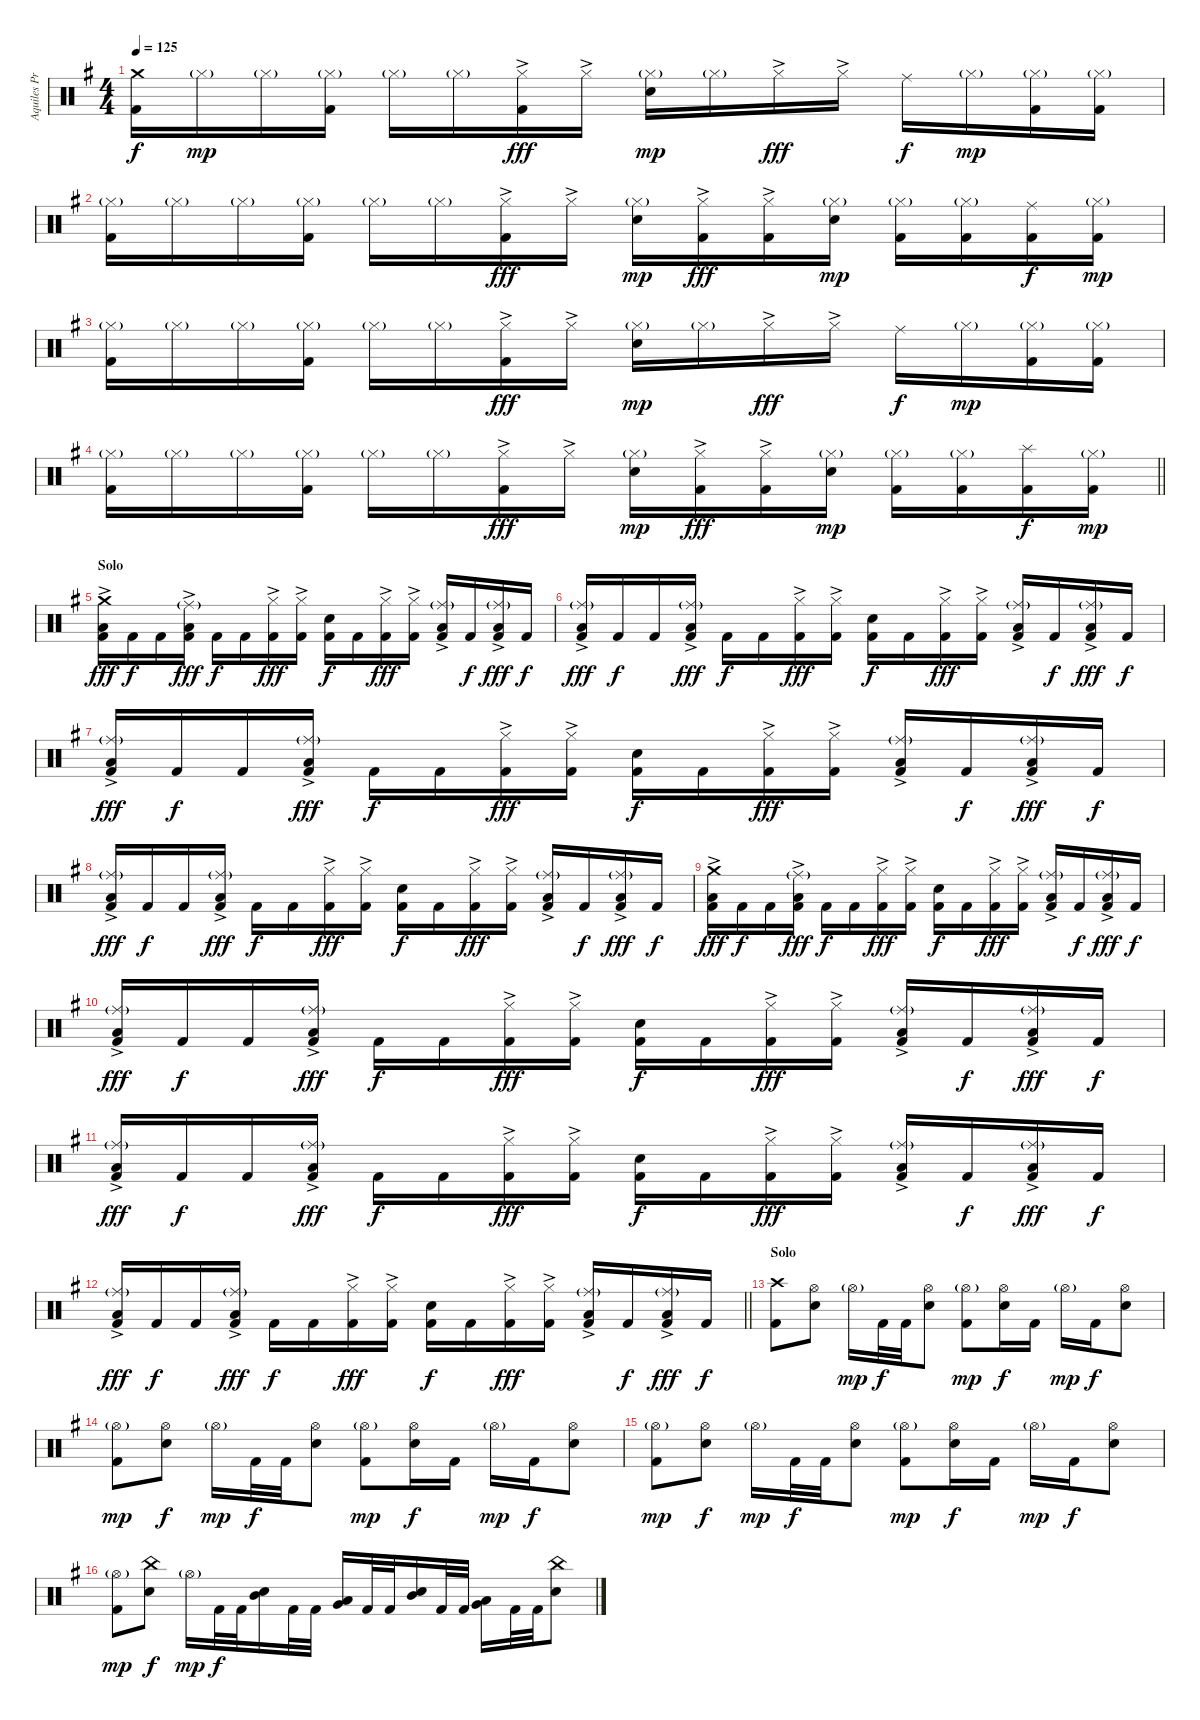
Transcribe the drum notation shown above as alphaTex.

\track ("Aquiles Priester" "Aquiles Pr") {instrument percussion}
\staff {score}
\articulation defaults
\ts (4 4)
\tempo 125
\clef neutral
\ks eminor
("Crash medium (hit)" "Kick (hit) 2").16{dy f} "Hi-Hat (closed)"{g}.16{dy mp} "Hi-Hat (closed)"{g}.16 ("Hi-Hat (closed)"{g} "Kick (hit) 2").16 "Hi-Hat (closed)"{g}.16 "Hi-Hat (closed)"{g}.16 ("Hi-Hat (closed)"{ac} "Kick (hit) 2").16{dy fff} "Hi-Hat (closed)"{ac}.16 ("Hi-Hat (closed)"{g} "Electric Snare (hit)").16{dy mp} "Hi-Hat (closed)"{g}.16 "Hi-Hat (closed)"{ac}.16{dy fff} "Hi-Hat (closed)"{ac}.16 "Ride (middle)".16{dy f} "Hi-Hat (closed)"{g}.16{dy mp} ("Hi-Hat (closed)"{g} "Kick (hit) 2").16 ("Hi-Hat (closed)"{g} "Kick (hit) 2").16 |
("Hi-Hat (closed)"{g} "Kick (hit) 2").16 "Hi-Hat (closed)"{g}.16 "Hi-Hat (closed)"{g}.16 ("Hi-Hat (closed)"{g} "Kick (hit) 2").16 "Hi-Hat (closed)"{g}.16 "Hi-Hat (closed)"{g}.16 ("Hi-Hat (closed)"{ac} "Kick (hit) 2").16{dy fff} "Hi-Hat (closed)"{ac}.16 ("Hi-Hat (closed)"{g} "Electric Snare (hit)").16{dy mp} ("Hi-Hat (closed)"{ac} "Kick (hit) 2").16{dy fff} ("Hi-Hat (closed)"{ac} "Kick (hit) 2").16 ("Hi-Hat (closed)"{g} "Electric Snare (hit)").16{dy mp} ("Hi-Hat (closed)"{g} "Kick (hit) 2").16 ("Hi-Hat (closed)"{g} "Kick (hit) 2").16 ("Ride (middle)" "Kick (hit) 2").16{dy f} ("Hi-Hat (closed)"{g} "Kick (hit) 2").16{dy mp} |
("Hi-Hat (closed)"{g} "Kick (hit) 2").16 "Hi-Hat (closed)"{g}.16 "Hi-Hat (closed)"{g}.16 ("Hi-Hat (closed)"{g} "Kick (hit) 2").16 "Hi-Hat (closed)"{g}.16 "Hi-Hat (closed)"{g}.16 ("Hi-Hat (closed)"{ac} "Kick (hit) 2").16{dy fff} "Hi-Hat (closed)"{ac}.16 ("Hi-Hat (closed)"{g} "Electric Snare (hit)").16{dy mp} "Hi-Hat (closed)"{g}.16 "Hi-Hat (closed)"{ac}.16{dy fff} "Hi-Hat (closed)"{ac}.16 "Ride (middle)".16{dy f} "Hi-Hat (closed)"{g}.16{dy mp} ("Hi-Hat (closed)"{g} "Kick (hit) 2").16 ("Hi-Hat (closed)"{g} "Kick (hit) 2").16 |
\barLineRight lightlight
("Hi-Hat (closed)"{g} "Kick (hit) 2").16 "Hi-Hat (closed)"{g}.16 "Hi-Hat (closed)"{g}.16 ("Hi-Hat (closed)"{g} "Kick (hit) 2").16 "Hi-Hat (closed)"{g}.16 "Hi-Hat (closed)"{g}.16 ("Hi-Hat (closed)"{ac} "Kick (hit) 2").16{dy fff} "Hi-Hat (closed)"{ac}.16 ("Hi-Hat (closed)"{g} "Electric Snare (hit)").16{dy mp} ("Hi-Hat (closed)"{ac} "Kick (hit) 2").16{dy fff} ("Hi-Hat (closed)"{ac} "Kick (hit) 2").16 ("Hi-Hat (closed)"{g} "Electric Snare (hit)").16{dy mp} ("Hi-Hat (closed)"{g} "Kick (hit) 2").16 ("Hi-Hat (closed)"{g} "Kick (hit) 2").16 ("Splash (hit)" "Kick (hit) 2").16{dy f} ("Hi-Hat (closed)"{g} "Kick (hit) 2").16{dy mp} |
\section ("" "Solo")
("Crash medium (hit)" "Low Tom (hit)"{ac} "Kick (hit) 2").16{dy fff} "Kick (hit) 2".16{dy f} "Kick (hit) 2".16 ("Ride (middle)"{g} "Low Tom (hit)"{ac} "Kick (hit) 2").16{dy fff} "Kick (hit) 2".16{dy f} "Kick (hit) 2".16 ("Hi-Hat (closed)"{ac} "Kick (hit) 2").16{dy fff} ("Hi-Hat (closed)"{ac} "Kick (hit) 2").16 ("Electric Snare (hit)" "Kick (hit) 2").16{dy f} "Kick (hit) 2".16 ("Hi-Hat (closed)"{ac} "Kick (hit) 2").16{dy fff} ("Hi-Hat (closed)"{ac} "Kick (hit) 2").16 ("Ride (middle)"{g} "Low Tom (hit)"{ac} "Kick (hit) 2").16 "Kick (hit) 2".16{dy f} ("Ride (middle)"{g} "Low Tom (hit)"{ac} "Kick (hit) 2").16{dy fff} "Kick (hit) 2".16{dy f} |
("Ride (middle)"{g} "Low Tom (hit)"{ac} "Kick (hit) 2").16{dy fff} "Kick (hit) 2".16{dy f} "Kick (hit) 2".16 ("Ride (middle)"{g} "Low Tom (hit)"{ac} "Kick (hit) 2").16{dy fff} "Kick (hit) 2".16{dy f} "Kick (hit) 2".16 ("Hi-Hat (closed)"{ac} "Kick (hit) 2").16{dy fff} ("Hi-Hat (closed)"{ac} "Kick (hit) 2").16 ("Electric Snare (hit)" "Kick (hit) 2").16{dy f} "Kick (hit) 2".16 ("Hi-Hat (closed)"{ac} "Kick (hit) 2").16{dy fff} ("Hi-Hat (closed)"{ac} "Kick (hit) 2").16 ("Ride (middle)"{g} "Low Tom (hit)"{ac} "Kick (hit) 2").16 "Kick (hit) 2".16{dy f} ("Ride (middle)"{g} "Low Tom (hit)"{ac} "Kick (hit) 2").16{dy fff} "Kick (hit) 2".16{dy f} |
("Ride (middle)"{g} "Low Tom (hit)"{ac} "Kick (hit) 2").16{dy fff} "Kick (hit) 2".16{dy f} "Kick (hit) 2".16 ("Ride (middle)"{g} "Low Tom (hit)"{ac} "Kick (hit) 2").16{dy fff} "Kick (hit) 2".16{dy f} "Kick (hit) 2".16 ("Hi-Hat (closed)"{ac} "Kick (hit) 2").16{dy fff} ("Hi-Hat (closed)"{ac} "Kick (hit) 2").16 ("Electric Snare (hit)" "Kick (hit) 2").16{dy f} "Kick (hit) 2".16 ("Hi-Hat (closed)"{ac} "Kick (hit) 2").16{dy fff} ("Hi-Hat (closed)"{ac} "Kick (hit) 2").16 ("Ride (middle)"{g} "Low Tom (hit)"{ac} "Kick (hit) 2").16 "Kick (hit) 2".16{dy f} ("Ride (middle)"{g} "Low Tom (hit)"{ac} "Kick (hit) 2").16{dy fff} "Kick (hit) 2".16{dy f} |
("Ride (middle)"{g} "Low Tom (hit)"{ac} "Kick (hit) 2").16{dy fff} "Kick (hit) 2".16{dy f} "Kick (hit) 2".16 ("Ride (middle)"{g} "Low Tom (hit)"{ac} "Kick (hit) 2").16{dy fff} "Kick (hit) 2".16{dy f} "Kick (hit) 2".16 ("Hi-Hat (closed)"{ac} "Kick (hit) 2").16{dy fff} ("Hi-Hat (closed)"{ac} "Kick (hit) 2").16 ("Electric Snare (hit)" "Kick (hit) 2").16{dy f} "Kick (hit) 2".16 ("Hi-Hat (closed)"{ac} "Kick (hit) 2").16{dy fff} ("Hi-Hat (closed)"{ac} "Kick (hit) 2").16 ("Ride (middle)"{g} "Low Tom (hit)"{ac} "Kick (hit) 2").16 "Kick (hit) 2".16{dy f} ("Ride (middle)"{g} "Low Tom (hit)"{ac} "Kick (hit) 2").16{dy fff} "Kick (hit) 2".16{dy f} |
("Crash medium (hit)" "Low Tom (hit)"{ac} "Kick (hit) 2").16{dy fff} "Kick (hit) 2".16{dy f} "Kick (hit) 2".16 ("Ride (middle)"{g} "Low Tom (hit)"{ac} "Kick (hit) 2").16{dy fff} "Kick (hit) 2".16{dy f} "Kick (hit) 2".16 ("Hi-Hat (closed)"{ac} "Kick (hit) 2").16{dy fff} ("Hi-Hat (closed)"{ac} "Kick (hit) 2").16 ("Electric Snare (hit)" "Kick (hit) 2").16{dy f} "Kick (hit) 2".16 ("Hi-Hat (closed)"{ac} "Kick (hit) 2").16{dy fff} ("Hi-Hat (closed)"{ac} "Kick (hit) 2").16 ("Ride (middle)"{g} "Low Tom (hit)"{ac} "Kick (hit) 2").16 "Kick (hit) 2".16{dy f} ("Ride (middle)"{g} "Low Tom (hit)"{ac} "Kick (hit) 2").16{dy fff} "Kick (hit) 2".16{dy f} |
("Ride (middle)"{g} "Low Tom (hit)"{ac} "Kick (hit) 2").16{dy fff} "Kick (hit) 2".16{dy f} "Kick (hit) 2".16 ("Ride (middle)"{g} "Low Tom (hit)"{ac} "Kick (hit) 2").16{dy fff} "Kick (hit) 2".16{dy f} "Kick (hit) 2".16 ("Hi-Hat (closed)"{ac} "Kick (hit) 2").16{dy fff} ("Hi-Hat (closed)"{ac} "Kick (hit) 2").16 ("Electric Snare (hit)" "Kick (hit) 2").16{dy f} "Kick (hit) 2".16 ("Hi-Hat (closed)"{ac} "Kick (hit) 2").16{dy fff} ("Hi-Hat (closed)"{ac} "Kick (hit) 2").16 ("Ride (middle)"{g} "Low Tom (hit)"{ac} "Kick (hit) 2").16 "Kick (hit) 2".16{dy f} ("Ride (middle)"{g} "Low Tom (hit)"{ac} "Kick (hit) 2").16{dy fff} "Kick (hit) 2".16{dy f} |
("Ride (middle)"{g} "Low Tom (hit)"{ac} "Kick (hit) 2").16{dy fff} "Kick (hit) 2".16{dy f} "Kick (hit) 2".16 ("Ride (middle)"{g} "Low Tom (hit)"{ac} "Kick (hit) 2").16{dy fff} "Kick (hit) 2".16{dy f} "Kick (hit) 2".16 ("Hi-Hat (closed)"{ac} "Kick (hit) 2").16{dy fff} ("Hi-Hat (closed)"{ac} "Kick (hit) 2").16 ("Electric Snare (hit)" "Kick (hit) 2").16{dy f} "Kick (hit) 2".16 ("Hi-Hat (closed)"{ac} "Kick (hit) 2").16{dy fff} ("Hi-Hat (closed)"{ac} "Kick (hit) 2").16 ("Ride (middle)"{g} "Low Tom (hit)"{ac} "Kick (hit) 2").16 "Kick (hit) 2".16{dy f} ("Ride (middle)"{g} "Low Tom (hit)"{ac} "Kick (hit) 2").16{dy fff} "Kick (hit) 2".16{dy f} |
\barLineRight lightlight
("Ride (middle)"{g} "Low Tom (hit)"{ac} "Kick (hit) 2").16{dy fff} "Kick (hit) 2".16{dy f} "Kick (hit) 2".16 ("Ride (middle)"{g} "Low Tom (hit)"{ac} "Kick (hit) 2").16{dy fff} "Kick (hit) 2".16{dy f} "Kick (hit) 2".16 ("Hi-Hat (closed)"{ac} "Kick (hit) 2").16{dy fff} ("Hi-Hat (closed)"{ac} "Kick (hit) 2").16 ("Electric Snare (hit)" "Kick (hit) 2").16{dy f} "Kick (hit) 2".16 ("Hi-Hat (closed)"{ac} "Kick (hit) 2").16{dy fff} ("Hi-Hat (closed)"{ac} "Kick (hit) 2").16 ("Ride (middle)"{g} "Low Tom (hit)"{ac} "Kick (hit) 2").16 "Kick (hit) 2".16{dy f} ("Ride (middle)"{g} "Low Tom (hit)"{ac} "Kick (hit) 2").16{dy fff} "Kick (hit) 2".16{dy f} |
\section ("" "Solo")
("Crash high (hit)" "Kick (hit) 2").8 ("Hi-Hat (open)" "Electric Snare (hit)").8 "Hi-Hat (open)"{g}.16{dy mp} "Kick (hit) 2".32{dy f} "Kick (hit) 2".32 ("Hi-Hat (open)" "Electric Snare (hit)").8 ("Hi-Hat (open)"{g} "Kick (hit) 2").8{dy mp} ("Hi-Hat (open)" "Electric Snare (hit)").16{dy f} "Kick (hit) 2".16 "Hi-Hat (open)"{g}.16{dy mp} "Kick (hit) 2".16{dy f} ("Hi-Hat (open)" "Electric Snare (hit)").8 |
("Hi-Hat (open)"{g} "Kick (hit) 2").8{dy mp} ("Hi-Hat (open)" "Electric Snare (hit)").8{dy f} "Hi-Hat (open)"{g}.16{dy mp} "Kick (hit) 2".32{dy f} "Kick (hit) 2".32 ("Hi-Hat (open)" "Electric Snare (hit)").8 ("Hi-Hat (open)"{g} "Kick (hit) 2").8{dy mp} ("Hi-Hat (open)" "Electric Snare (hit)").16{dy f} "Kick (hit) 2".16 "Hi-Hat (open)"{g}.16{dy mp} "Kick (hit) 2".16{dy f} ("Hi-Hat (open)" "Electric Snare (hit)").8 |
("Hi-Hat (open)"{g} "Kick (hit) 2").8{dy mp} ("Hi-Hat (open)" "Electric Snare (hit)").8{dy f} "Hi-Hat (open)"{g}.16{dy mp} "Kick (hit) 2".32{dy f} "Kick (hit) 2".32 ("Hi-Hat (open)" "Electric Snare (hit)").8 ("Hi-Hat (open)"{g} "Kick (hit) 2").8{dy mp} ("Hi-Hat (open)" "Electric Snare (hit)").16{dy f} "Kick (hit) 2".16 "Hi-Hat (open)"{g}.16{dy mp} "Kick (hit) 2".16{dy f} ("Hi-Hat (open)" "Electric Snare (hit)").8 |
("Hi-Hat (open)"{g} "Kick (hit) 2").8{dy mp} ("China (hit)" "Electric Snare (hit)").8{dy f} "Hi-Hat (open)"{g}.16{dy mp} "Kick (hit) 2".32{dy f} "Kick (hit) 2".32 ("Mid Tom (hit)" "Electric Snare (hit)").16 "Kick (hit) 2".32 "Kick (hit) 2".32 ("Very Low Tom (hit)" "Low Tom (hit)").16 "Kick (hit) 2".32 "Kick (hit) 2".32 ("Mid Tom (hit)" "Electric Snare (hit)").16 "Kick (hit) 2".32 "Kick (hit) 2".32 ("Very Low Tom (hit)" "Low Tom (hit)").16 "Kick (hit) 2".32 "Kick (hit) 2".32 ("China (hit)" "Electric Snare (hit)").8
